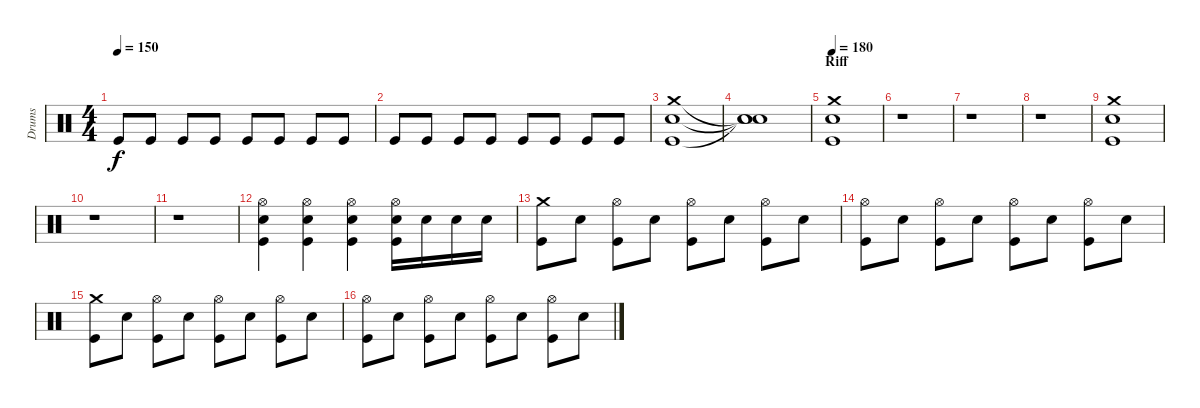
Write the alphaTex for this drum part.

\track ("Drums" "Drums") {instrument percussion}
\staff {score}
\articulation defaults
\ts (4 4)
\tempo 150
\clef neutral
\ks c "Kick (hit)".8{dy f} "Kick (hit)".8 "Kick (hit)".8 "Kick (hit)".8 "Kick (hit)".8 "Kick (hit)".8 "Kick (hit)".8 "Kick (hit)".8
|
"Kick (hit)".8 "Kick (hit)".8 "Kick (hit)".8 "Kick (hit)".8 "Kick (hit)".8 "Kick (hit)".8 "Kick (hit)".8 "Kick (hit)".8 |
("Crash medium (hit)" "Snare (hit) 2" "Kick (hit)").1 |
("Snare (hit)"{t} "Snare (hit)"{t} "Snare (hit)"{t}).1 |
\section ("" "Riff")
\tempo 180
("Crash medium (hit)" "Snare (hit) 2" "Kick (hit)").1 |
r.1 |
r.1 |
r.1 |
("Crash medium (hit)" "Snare (hit) 2" "Kick (hit)").1 |
r.1 |
r.1 |
("Hi-Hat (open)" "Snare (hit) 2" "Kick (hit)").4 ("Hi-Hat (open)" "Snare (hit) 2" "Kick (hit)").4 ("Hi-Hat (open)" "Snare (hit) 2" "Kick (hit)").4 ("Hi-Hat (open)" "Snare (hit) 2" "Kick (hit)").16 "Snare (hit) 2".16 "Snare (hit) 2".16 "Snare (hit) 2".16 |
("Crash medium (hit)" "Kick (hit)").8 "Snare (hit) 2".8 ("Hi-Hat (open)" "Kick (hit)").8 "Snare (hit) 2".8 ("Hi-Hat (open)" "Kick (hit)").8 "Snare (hit) 2".8 ("Hi-Hat (open)" "Kick (hit)").8 "Snare (hit) 2".8 |
("Hi-Hat (open)" "Kick (hit)").8 "Snare (hit) 2".8 ("Hi-Hat (open)" "Kick (hit)").8 "Snare (hit) 2".8 ("Hi-Hat (open)" "Kick (hit)").8 "Snare (hit) 2".8 ("Hi-Hat (open)" "Kick (hit)").8 "Snare (hit) 2".8 |
("Crash medium (hit)" "Kick (hit)").8 "Snare (hit) 2".8 ("Hi-Hat (open)" "Kick (hit)").8 "Snare (hit) 2".8 ("Hi-Hat (open)" "Kick (hit)").8 "Snare (hit) 2".8 ("Hi-Hat (open)" "Kick (hit)").8 "Snare (hit) 2".8 |
("Hi-Hat (open)" "Kick (hit)").8 "Snare (hit) 2".8 ("Hi-Hat (open)" "Kick (hit)").8 "Snare (hit) 2".8 ("Hi-Hat (open)" "Kick (hit)").8 "Snare (hit) 2".8 ("Hi-Hat (open)" "Kick (hit)").8 "Snare (hit) 2".8
